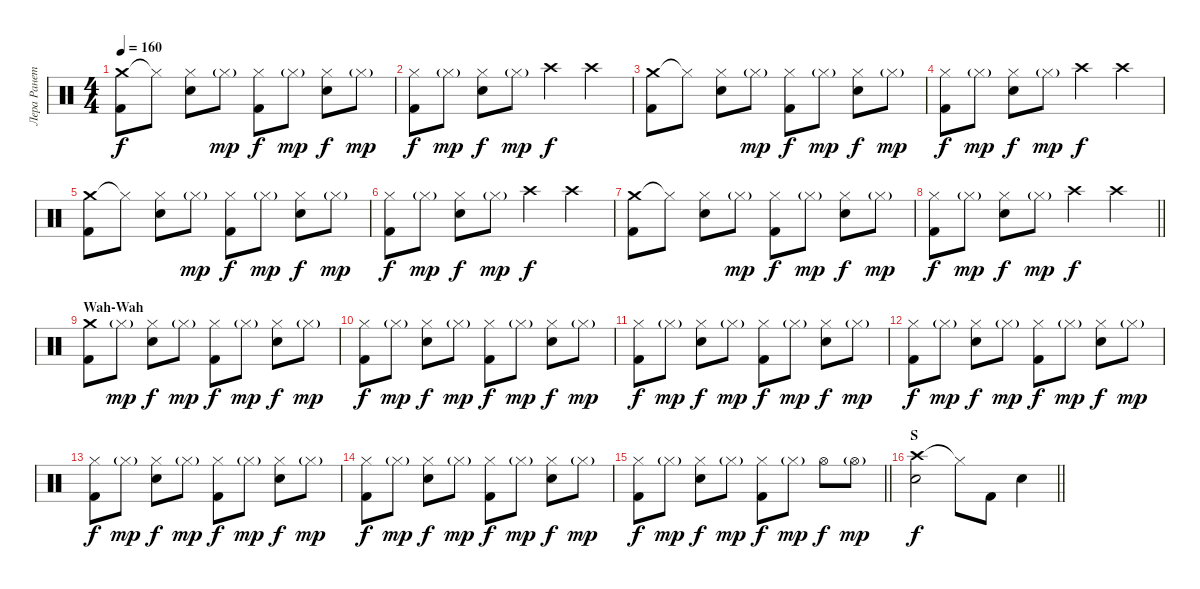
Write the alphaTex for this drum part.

\track ("Лера Ранетка" "Лера Ранет") {instrument percussion}
\staff {score}
\articulation defaults
\ts (4 4)
\tempo 160
\clef neutral
\ks c
("Crash medium (hit)" "Kick (hit) 2").8{dy f} "Hi-Hat (closed)"{t}.8 ("Hi-Hat (closed)" "Snare (hit) 2").8 "Hi-Hat (closed)"{g}.8{dy mp} ("Hi-Hat (closed)" "Kick (hit) 2").8{dy f} "Hi-Hat (closed)"{g}.8{dy mp} ("Hi-Hat (closed)" "Snare (hit) 2").8{dy f} "Hi-Hat (closed)"{g}.8{dy mp} |
("Hi-Hat (closed)" "Kick (hit) 2").8{dy f} "Hi-Hat (closed)"{g}.8{dy mp} ("Hi-Hat (closed)" "Snare (hit) 2").8{dy f} "Hi-Hat (closed)"{g}.8{dy mp} "Crash high (hit)".4{dy f} "Crash high (hit)".4 |
("Crash medium (hit)" "Kick (hit) 2").8 "Hi-Hat (closed)"{t}.8 ("Hi-Hat (closed)" "Snare (hit) 2").8 "Hi-Hat (closed)"{g}.8{dy mp} ("Hi-Hat (closed)" "Kick (hit) 2").8{dy f} "Hi-Hat (closed)"{g}.8{dy mp} ("Hi-Hat (closed)" "Snare (hit) 2").8{dy f} "Hi-Hat (closed)"{g}.8{dy mp} |
("Hi-Hat (closed)" "Kick (hit) 2").8{dy f} "Hi-Hat (closed)"{g}.8{dy mp} ("Hi-Hat (closed)" "Snare (hit) 2").8{dy f} "Hi-Hat (closed)"{g}.8{dy mp} "Crash high (hit)".4{dy f} "Crash high (hit)".4 |
("Crash medium (hit)" "Kick (hit) 2").8 "Hi-Hat (closed)"{t}.8 ("Hi-Hat (closed)" "Snare (hit) 2").8 "Hi-Hat (closed)"{g}.8{dy mp} ("Hi-Hat (closed)" "Kick (hit) 2").8{dy f} "Hi-Hat (closed)"{g}.8{dy mp} ("Hi-Hat (closed)" "Snare (hit) 2").8{dy f} "Hi-Hat (closed)"{g}.8{dy mp} |
("Hi-Hat (closed)" "Kick (hit) 2").8{dy f} "Hi-Hat (closed)"{g}.8{dy mp} ("Hi-Hat (closed)" "Snare (hit) 2").8{dy f} "Hi-Hat (closed)"{g}.8{dy mp} "Crash high (hit)".4{dy f} "Crash high (hit)".4 |
("Crash medium (hit)" "Kick (hit) 2").8 "Hi-Hat (closed)"{t}.8 ("Hi-Hat (closed)" "Snare (hit) 2").8 "Hi-Hat (closed)"{g}.8{dy mp} ("Hi-Hat (closed)" "Kick (hit) 2").8{dy f} "Hi-Hat (closed)"{g}.8{dy mp} ("Hi-Hat (closed)" "Snare (hit) 2").8{dy f} "Hi-Hat (closed)"{g}.8{dy mp} |
\barLineRight lightlight
("Hi-Hat (closed)" "Kick (hit) 2").8{dy f} "Hi-Hat (closed)"{g}.8{dy mp} ("Hi-Hat (closed)" "Snare (hit) 2").8{dy f} "Hi-Hat (closed)"{g}.8{dy mp} "Crash high (hit)".4{dy f} "Crash high (hit)".4 |
\section ("" "Wah-Wah")
("Crash medium (hit)" "Kick (hit) 2").8 "Hi-Hat (closed)"{g}.8{dy mp} ("Hi-Hat (closed)" "Snare (hit) 2").8{dy f} "Hi-Hat (closed)"{g}.8{dy mp} ("Hi-Hat (closed)" "Kick (hit) 2").8{dy f} "Hi-Hat (closed)"{g}.8{dy mp} ("Hi-Hat (closed)" "Snare (hit) 2").8{dy f} "Hi-Hat (closed)"{g}.8{dy mp} |
("Hi-Hat (closed)" "Kick (hit) 2").8{dy f} "Hi-Hat (closed)"{g}.8{dy mp} ("Hi-Hat (closed)" "Snare (hit) 2").8{dy f} "Hi-Hat (closed)"{g}.8{dy mp} ("Hi-Hat (closed)" "Kick (hit) 2").8{dy f} "Hi-Hat (closed)"{g}.8{dy mp} ("Hi-Hat (closed)" "Snare (hit) 2").8{dy f} "Hi-Hat (closed)"{g}.8{dy mp} |
("Hi-Hat (closed)" "Kick (hit) 2").8{dy f} "Hi-Hat (closed)"{g}.8{dy mp} ("Hi-Hat (closed)" "Snare (hit) 2").8{dy f} "Hi-Hat (closed)"{g}.8{dy mp} ("Hi-Hat (closed)" "Kick (hit) 2").8{dy f} "Hi-Hat (closed)"{g}.8{dy mp} ("Hi-Hat (closed)" "Snare (hit) 2").8{dy f} "Hi-Hat (closed)"{g}.8{dy mp} |
("Hi-Hat (closed)" "Kick (hit) 2").8{dy f} "Hi-Hat (closed)"{g}.8{dy mp} ("Hi-Hat (closed)" "Snare (hit) 2").8{dy f} "Hi-Hat (closed)"{g}.8{dy mp} ("Hi-Hat (closed)" "Kick (hit) 2").8{dy f} "Hi-Hat (closed)"{g}.8{dy mp} ("Hi-Hat (closed)" "Snare (hit) 2").8{dy f} "Hi-Hat (closed)"{g}.8{dy mp} |
("Hi-Hat (closed)" "Kick (hit) 2").8{dy f} "Hi-Hat (closed)"{g}.8{dy mp} ("Hi-Hat (closed)" "Snare (hit) 2").8{dy f} "Hi-Hat (closed)"{g}.8{dy mp} ("Hi-Hat (closed)" "Kick (hit) 2").8{dy f} "Hi-Hat (closed)"{g}.8{dy mp} ("Hi-Hat (closed)" "Snare (hit) 2").8{dy f} "Hi-Hat (closed)"{g}.8{dy mp} |
("Hi-Hat (closed)" "Kick (hit) 2").8{dy f} "Hi-Hat (closed)"{g}.8{dy mp} ("Hi-Hat (closed)" "Snare (hit) 2").8{dy f} "Hi-Hat (closed)"{g}.8{dy mp} ("Hi-Hat (closed)" "Kick (hit) 2").8{dy f} "Hi-Hat (closed)"{g}.8{dy mp} ("Hi-Hat (closed)" "Snare (hit) 2").8{dy f} "Hi-Hat (closed)"{g}.8{dy mp} |
\barLineRight lightlight
("Hi-Hat (closed)" "Kick (hit) 2").8{dy f} "Hi-Hat (closed)"{g}.8{dy mp} ("Hi-Hat (closed)" "Snare (hit) 2").8{dy f} "Hi-Hat (closed)"{g}.8{dy mp} ("Hi-Hat (closed)" "Kick (hit) 2").8{dy f} "Hi-Hat (closed)"{g}.8{dy mp} "Hi-Hat (open)".8{dy f} "Hi-Hat (open)"{g}.8{dy mp} |
\section ("" "S")
\barLineRight lightlight
("Crash high (hit)" "Snare (hit) 2").2{dy f} "Hi-Hat (closed)"{t}.8 "Kick (hit) 2".8 "Snare (hit) 2".4
